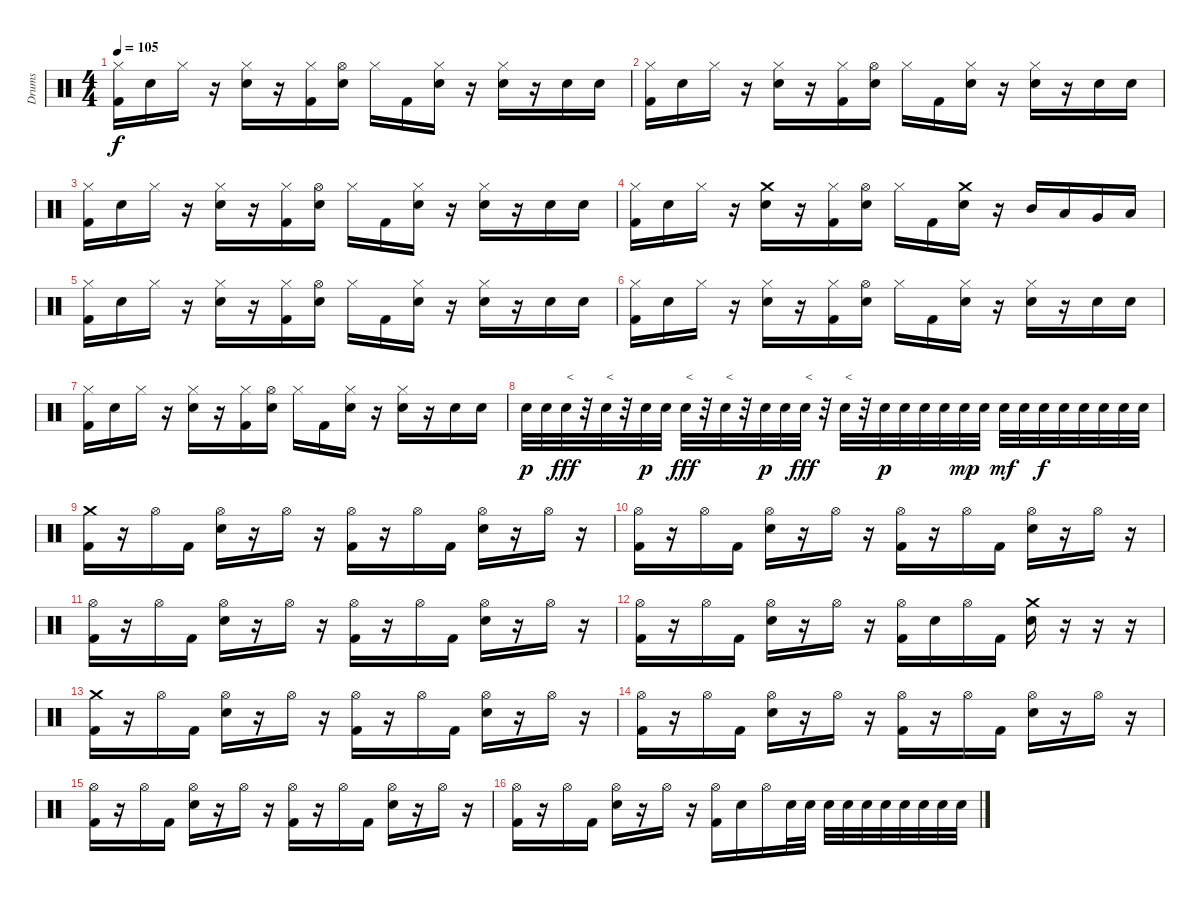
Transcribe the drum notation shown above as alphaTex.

\track ("Drums" "Drums") {instrument percussion}
\staff {score}
\articulation defaults
\ts (4 4)
\tempo 105
\clef neutral
\ks c
("Hi-Hat (closed)" "Kick (hit) 2").16{dy f} "Snare (hit) 2".16 "Hi-Hat (closed)".16 r.16 ("Hi-Hat (closed)" "Snare (hit) 2").16 r.16 ("Hi-Hat (closed)" "Kick (hit) 2").16 ("Hi-Hat (open)" "Snare (hit) 2").16 "Hi-Hat (closed)".16 "Kick (hit) 2".16 ("Hi-Hat (closed)" "Snare (hit) 2").16 r.16 ("Hi-Hat (closed)" "Snare (hit) 2").16 r.16 "Snare (hit) 2".16 "Snare (hit) 2".16 |
("Hi-Hat (closed)" "Kick (hit) 2").16 "Snare (hit) 2".16 "Hi-Hat (closed)".16 r.16 ("Hi-Hat (closed)" "Snare (hit) 2").16 r.16 ("Hi-Hat (closed)" "Kick (hit) 2").16 ("Hi-Hat (open)" "Snare (hit) 2").16 "Hi-Hat (closed)".16 "Kick (hit) 2".16 ("Hi-Hat (closed)" "Snare (hit) 2").16 r.16 ("Hi-Hat (closed)" "Snare (hit) 2").16 r.16 "Snare (hit) 2".16 "Snare (hit) 2".16 |
("Hi-Hat (closed)" "Kick (hit) 2").16 "Snare (hit) 2".16 "Hi-Hat (closed)".16 r.16 ("Hi-Hat (closed)" "Snare (hit) 2").16 r.16 ("Hi-Hat (closed)" "Kick (hit) 2").16 ("Hi-Hat (open)" "Snare (hit) 2").16 "Hi-Hat (closed)".16 "Kick (hit) 2".16 ("Hi-Hat (closed)" "Snare (hit) 2").16 r.16 ("Hi-Hat (closed)" "Snare (hit) 2").16 r.16 "Snare (hit) 2".16 "Snare (hit) 2".16 |
("Hi-Hat (closed)" "Kick (hit) 2").16 "Snare (hit) 2".16 "Hi-Hat (closed)".16 r.16 ("Crash medium (hit)" "Snare (hit) 2").16 r.16 ("Hi-Hat (closed)" "Kick (hit) 2").16 ("Hi-Hat (open)" "Snare (hit) 2").16 "Hi-Hat (closed)".16 "Kick (hit) 2".16 ("Crash medium (hit)" "Snare (hit) 2").16 r.16 "Mid Tom (hit)".16 "Low Tom (hit)".16 "Very Low Tom (hit)".16 "Low Floor Tom (hit)".16 |
("Hi-Hat (closed)" "Kick (hit) 2").16 "Snare (hit) 2".16 "Hi-Hat (closed)".16 r.16 ("Hi-Hat (closed)" "Snare (hit) 2").16 r.16 ("Hi-Hat (closed)" "Kick (hit) 2").16 ("Hi-Hat (open)" "Snare (hit) 2").16 "Hi-Hat (closed)".16 "Kick (hit) 2".16 ("Hi-Hat (closed)" "Snare (hit) 2").16 r.16 ("Hi-Hat (closed)" "Snare (hit) 2").16 r.16 "Snare (hit) 2".16 "Snare (hit) 2".16 |
("Hi-Hat (closed)" "Kick (hit) 2").16 "Snare (hit) 2".16 "Hi-Hat (closed)".16 r.16 ("Hi-Hat (closed)" "Snare (hit) 2").16 r.16 ("Hi-Hat (closed)" "Kick (hit) 2").16 ("Hi-Hat (open)" "Snare (hit) 2").16 "Hi-Hat (closed)".16 "Kick (hit) 2".16 ("Hi-Hat (closed)" "Snare (hit) 2").16 r.16 ("Hi-Hat (closed)" "Snare (hit) 2").16 r.16 "Snare (hit) 2".16 "Snare (hit) 2".16 |
("Hi-Hat (closed)" "Kick (hit) 2").16 "Snare (hit) 2".16 "Hi-Hat (closed)".16 r.16 ("Hi-Hat (closed)" "Snare (hit) 2").16 r.16 ("Hi-Hat (closed)" "Kick (hit) 2").16 ("Hi-Hat (open)" "Snare (hit) 2").16 "Hi-Hat (closed)".16 "Kick (hit) 2".16 ("Hi-Hat (closed)" "Snare (hit) 2").16 r.16 ("Hi-Hat (closed)" "Snare (hit) 2").16 r.16 "Snare (hit) 2".16 "Snare (hit) 2".16 |
"Snare (hit) 2".32{dy p} "Snare (hit) 2".32 "Snare (hit) 2".32{txt "<" dy fff} r.32 "Snare (hit) 2".32{txt "<"} r.32 "Snare (hit) 2".32{dy p} "Snare (hit) 2".32 "Snare (hit) 2".32{txt "<" dy fff} r.32 "Snare (hit) 2".32{txt "<"} r.32 "Snare (hit) 2".32{dy p} "Snare (hit) 2".32 "Snare (hit) 2".32{txt "<" dy fff} r.32 "Snare (hit) 2".32{txt "<"} r.32 "Snare (hit) 2".32{dy p} "Snare (hit) 2".32 "Snare (hit) 2".32 "Snare (hit) 2".32 "Snare (hit) 2".32{dy mp} "Snare (hit) 2".32 "Snare (hit) 2".32{dy mf} "Snare (hit) 2".32 "Snare (hit) 2".32{dy f} "Snare (hit) 2".32 "Snare (hit) 2".32 "Snare (hit) 2".32 "Snare (hit) 2".32 "Snare (hit) 2".32 |
("Crash medium (hit)" "Kick (hit) 2").16 r.16 "Hi-Hat (open)".16 "Kick (hit) 2".16 ("Hi-Hat (open)" "Snare (hit) 2").16 r.16 "Hi-Hat (open)".16 r.16 ("Hi-Hat (open)" "Kick (hit) 2").16 r.16 "Hi-Hat (open)".16 "Kick (hit) 2".16 ("Hi-Hat (open)" "Snare (hit) 2").16 r.16 "Hi-Hat (open)".16 r.16 |
("Hi-Hat (open)" "Kick (hit) 2").16 r.16 "Hi-Hat (open)".16 "Kick (hit) 2".16 ("Hi-Hat (open)" "Snare (hit) 2").16 r.16 "Hi-Hat (open)".16 r.16 ("Hi-Hat (open)" "Kick (hit) 2").16 r.16 "Hi-Hat (open)".16 "Kick (hit) 2".16 ("Hi-Hat (open)" "Snare (hit) 2").16 r.16 "Hi-Hat (open)".16 r.16 |
("Hi-Hat (open)" "Kick (hit) 2").16 r.16 "Hi-Hat (open)".16 "Kick (hit) 2".16 ("Hi-Hat (open)" "Snare (hit) 2").16 r.16 "Hi-Hat (open)".16 r.16 ("Hi-Hat (open)" "Kick (hit) 2").16 r.16 "Hi-Hat (open)".16 "Kick (hit) 2".16 ("Hi-Hat (open)" "Snare (hit) 2").16 r.16 "Hi-Hat (open)".16 r.16 |
("Hi-Hat (open)" "Kick (hit) 2").16 r.16 "Hi-Hat (open)".16 "Kick (hit) 2".16 ("Hi-Hat (open)" "Snare (hit) 2").16 r.16 "Hi-Hat (open)".16 r.16 ("Hi-Hat (open)" "Kick (hit) 2").16 "Snare (hit) 2".16 "Hi-Hat (open)".16 "Kick (hit) 2".16 ("Crash medium (hit)" "Snare (hit) 2").16 r.16 r.16 r.16 |
("Crash medium (hit)" "Kick (hit) 2").16 r.16 "Hi-Hat (open)".16 "Kick (hit) 2".16 ("Hi-Hat (open)" "Snare (hit) 2").16 r.16 "Hi-Hat (open)".16 r.16 ("Hi-Hat (open)" "Kick (hit) 2").16 r.16 "Hi-Hat (open)".16 "Kick (hit) 2".16 ("Hi-Hat (open)" "Snare (hit) 2").16 r.16 "Hi-Hat (open)".16 r.16 |
("Hi-Hat (open)" "Kick (hit) 2").16 r.16 "Hi-Hat (open)".16 "Kick (hit) 2".16 ("Hi-Hat (open)" "Snare (hit) 2").16 r.16 "Hi-Hat (open)".16 r.16 ("Hi-Hat (open)" "Kick (hit) 2").16 r.16 "Hi-Hat (open)".16 "Kick (hit) 2".16 ("Hi-Hat (open)" "Snare (hit) 2").16 r.16 "Hi-Hat (open)".16 r.16 |
("Hi-Hat (open)" "Kick (hit) 2").16 r.16 "Hi-Hat (open)".16 "Kick (hit) 2".16 ("Hi-Hat (open)" "Snare (hit) 2").16 r.16 "Hi-Hat (open)".16 r.16 ("Hi-Hat (open)" "Kick (hit) 2").16 r.16 "Hi-Hat (open)".16 "Kick (hit) 2".16 ("Hi-Hat (open)" "Snare (hit) 2").16 r.16 "Hi-Hat (open)".16 r.16 |
("Hi-Hat (open)" "Kick (hit) 2").16 r.16 "Hi-Hat (open)".16 "Kick (hit) 2".16 ("Hi-Hat (open)" "Snare (hit) 2").16 r.16 "Hi-Hat (open)".16 r.16 ("Hi-Hat (open)" "Kick (hit) 2").16 "Snare (hit) 2".16 "Hi-Hat (open)".16 "Snare (hit) 2".32 "Snare (hit) 2".32 "Snare (hit) 2".32 "Snare (hit) 2".32 "Snare (hit) 2".32 "Snare (hit) 2".32 "Snare (hit) 2".32 "Snare (hit) 2".32 "Snare (hit) 2".32 "Snare (hit) 2".32
